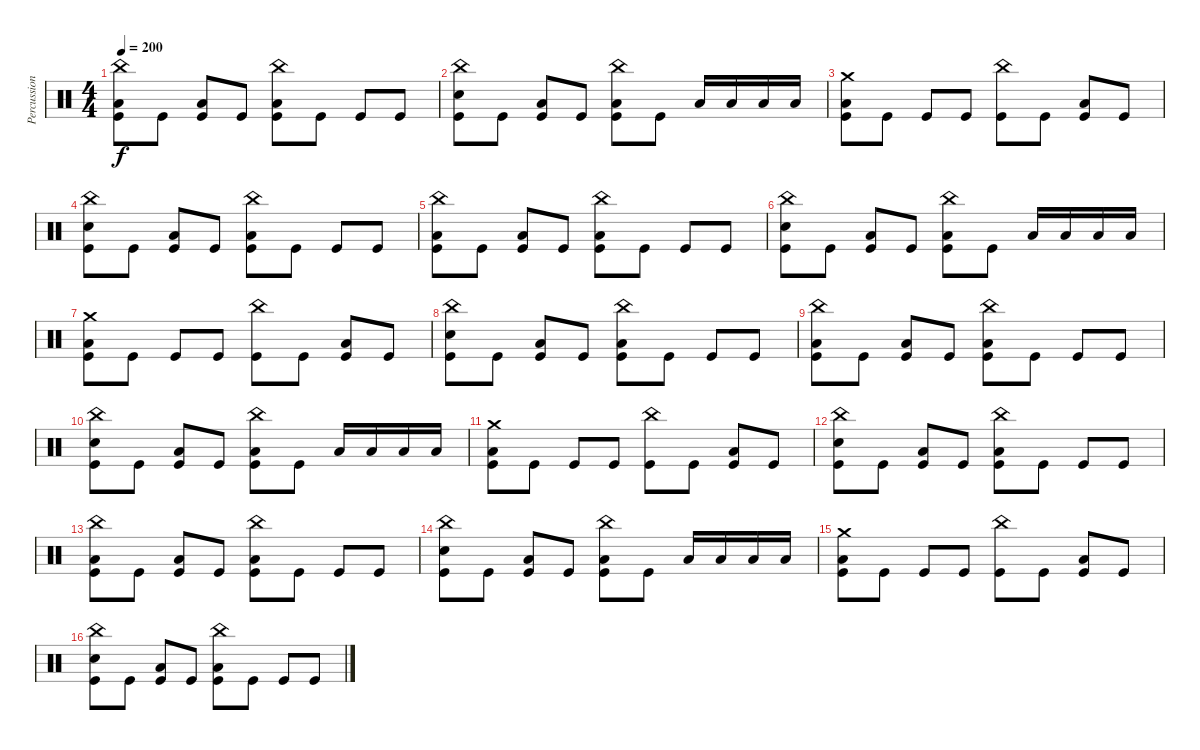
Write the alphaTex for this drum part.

\track ("Percussion" "Percussion") {instrument percussion}
\staff {score}
\articulation defaults
\ts (4 4)
\tempo 200
\clef neutral
\ks c
("China (hit)" "Low Tom (hit)" "Kick (hit)").8{dy f} "Kick (hit)".8 ("Low Tom (hit)" "Kick (hit)").8 "Kick (hit)".8 ("China (hit)" "Low Tom (hit)" "Kick (hit)").8 "Kick (hit)".8 "Kick (hit)".8 "Kick (hit)".8 |
("China (hit)" "Electric Snare (hit)" "Kick (hit)").8 "Kick (hit)".8 ("Low Tom (hit)" "Kick (hit)").8 "Kick (hit)".8 ("China (hit)" "Low Tom (hit)" "Kick (hit)").8 "Kick (hit)".8 "Low Tom (hit)".16 "Low Tom (hit)".16 "Low Tom (hit)".16 "Low Tom (hit)".16 |
("Crash medium (hit)" "Low Tom (hit)" "Kick (hit)").8 "Kick (hit)".8 "Kick (hit)".8 "Kick (hit)".8 ("China (hit)" "Kick (hit)").8 "Kick (hit)".8 ("Low Tom (hit)" "Kick (hit)").8 "Kick (hit)".8 |
("China (hit)" "Electric Snare (hit)" "Kick (hit)").8 "Kick (hit)".8 ("Low Tom (hit)" "Kick (hit)").8 "Kick (hit)".8 ("China (hit)" "Low Tom (hit)" "Kick (hit)").8 "Kick (hit)".8 "Kick (hit)".8 "Kick (hit)".8 |
("China (hit)" "Low Tom (hit)" "Kick (hit)").8 "Kick (hit)".8 ("Low Tom (hit)" "Kick (hit)").8 "Kick (hit)".8 ("China (hit)" "Low Tom (hit)" "Kick (hit)").8 "Kick (hit)".8 "Kick (hit)".8 "Kick (hit)".8 |
("China (hit)" "Electric Snare (hit)" "Kick (hit)").8 "Kick (hit)".8 ("Low Tom (hit)" "Kick (hit)").8 "Kick (hit)".8 ("China (hit)" "Low Tom (hit)" "Kick (hit)").8 "Kick (hit)".8 "Low Tom (hit)".16 "Low Tom (hit)".16 "Low Tom (hit)".16 "Low Tom (hit)".16 |
("Crash medium (hit)" "Low Tom (hit)" "Kick (hit)").8 "Kick (hit)".8 "Kick (hit)".8 "Kick (hit)".8 ("China (hit)" "Kick (hit)").8 "Kick (hit)".8 ("Low Tom (hit)" "Kick (hit)").8 "Kick (hit)".8 |
("China (hit)" "Electric Snare (hit)" "Kick (hit)").8 "Kick (hit)".8 ("Low Tom (hit)" "Kick (hit)").8 "Kick (hit)".8 ("China (hit)" "Low Tom (hit)" "Kick (hit)").8 "Kick (hit)".8 "Kick (hit)".8 "Kick (hit)".8 |
("China (hit)" "Low Tom (hit)" "Kick (hit)").8 "Kick (hit)".8 ("Low Tom (hit)" "Kick (hit)").8 "Kick (hit)".8 ("China (hit)" "Low Tom (hit)" "Kick (hit)").8 "Kick (hit)".8 "Kick (hit)".8 "Kick (hit)".8 |
("China (hit)" "Electric Snare (hit)" "Kick (hit)").8 "Kick (hit)".8 ("Low Tom (hit)" "Kick (hit)").8 "Kick (hit)".8 ("China (hit)" "Low Tom (hit)" "Kick (hit)").8 "Kick (hit)".8 "Low Tom (hit)".16 "Low Tom (hit)".16 "Low Tom (hit)".16 "Low Tom (hit)".16 |
("Crash medium (hit)" "Low Tom (hit)" "Kick (hit)").8 "Kick (hit)".8 "Kick (hit)".8 "Kick (hit)".8 ("China (hit)" "Kick (hit)").8 "Kick (hit)".8 ("Low Tom (hit)" "Kick (hit)").8 "Kick (hit)".8 |
("China (hit)" "Electric Snare (hit)" "Kick (hit)").8 "Kick (hit)".8 ("Low Tom (hit)" "Kick (hit)").8 "Kick (hit)".8 ("China (hit)" "Low Tom (hit)" "Kick (hit)").8 "Kick (hit)".8 "Kick (hit)".8 "Kick (hit)".8 |
("China (hit)" "Low Tom (hit)" "Kick (hit)").8 "Kick (hit)".8 ("Low Tom (hit)" "Kick (hit)").8 "Kick (hit)".8 ("China (hit)" "Low Tom (hit)" "Kick (hit)").8 "Kick (hit)".8 "Kick (hit)".8 "Kick (hit)".8 |
("China (hit)" "Electric Snare (hit)" "Kick (hit)").8 "Kick (hit)".8 ("Low Tom (hit)" "Kick (hit)").8 "Kick (hit)".8 ("China (hit)" "Low Tom (hit)" "Kick (hit)").8 "Kick (hit)".8 "Low Tom (hit)".16 "Low Tom (hit)".16 "Low Tom (hit)".16 "Low Tom (hit)".16 |
("Crash medium (hit)" "Low Tom (hit)" "Kick (hit)").8 "Kick (hit)".8 "Kick (hit)".8 "Kick (hit)".8 ("China (hit)" "Kick (hit)").8 "Kick (hit)".8 ("Low Tom (hit)" "Kick (hit)").8 "Kick (hit)".8 |
("China (hit)" "Electric Snare (hit)" "Kick (hit)").8 "Kick (hit)".8 ("Low Tom (hit)" "Kick (hit)").8 "Kick (hit)".8 ("China (hit)" "Low Tom (hit)" "Kick (hit)").8 "Kick (hit)".8 "Kick (hit)".8 "Kick (hit)".8
